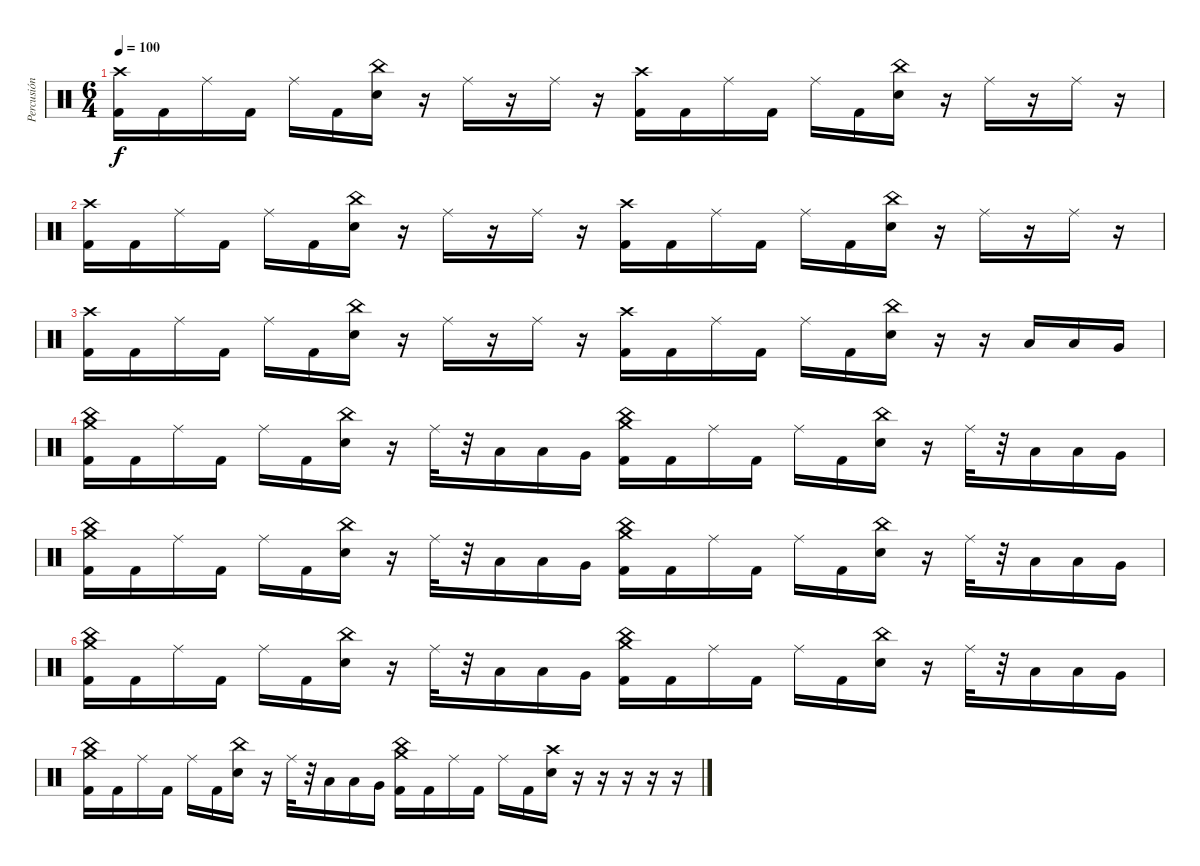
\track ("Percusión" "Percusión") {instrument percussion}
\staff {score}
\articulation defaults
\ts (6 4)
\tempo 100
\clef neutral
\ks c
("Crash high (hit)" "Kick (hit) 2").16{dy f} "Kick (hit) 2".16 "Ride (middle)".16 "Kick (hit) 2".16 "Ride (middle)".16 "Kick (hit) 2".16 ("China (hit)" "Snare (hit) 2").16 r.16 "Ride (middle)".16 r.16 "Ride (middle)".16 r.16 ("Crash high (hit)" "Kick (hit) 2").16 "Kick (hit) 2".16 "Ride (middle)".16 "Kick (hit) 2".16 "Ride (middle)".16 "Kick (hit) 2".16 ("China (hit)" "Snare (hit) 2").16 r.16 "Ride (middle)".16 r.16 "Ride (middle)".16 r.16 |
("Crash high (hit)" "Kick (hit) 2").16 "Kick (hit) 2".16 "Ride (middle)".16 "Kick (hit) 2".16 "Ride (middle)".16 "Kick (hit) 2".16 ("China (hit)" "Snare (hit) 2").16 r.16 "Ride (middle)".16 r.16 "Ride (middle)".16 r.16 ("Crash high (hit)" "Kick (hit) 2").16 "Kick (hit) 2".16 "Ride (middle)".16 "Kick (hit) 2".16 "Ride (middle)".16 "Kick (hit) 2".16 ("China (hit)" "Snare (hit) 2").16 r.16 "Ride (middle)".16 r.16 "Ride (middle)".16 r.16 |
("Crash high (hit)" "Kick (hit) 2").16 "Kick (hit) 2".16 "Ride (middle)".16 "Kick (hit) 2".16 "Ride (middle)".16 "Kick (hit) 2".16 ("China (hit)" "Snare (hit) 2").16 r.16 "Ride (middle)".16 r.16 "Ride (middle)".16 r.16 ("Crash high (hit)" "Kick (hit) 2").16 "Kick (hit) 2".16 "Ride (middle)".16 "Kick (hit) 2".16 "Ride (middle)".16 "Kick (hit) 2".16 ("China (hit)" "Snare (hit) 2").16 r.16 r.16 "Low Tom (hit)".16 "Low Floor Tom (hit)".16 "Very Low Tom (hit)".16 |
("China (hit)" "Crash medium (hit)" "Kick (hit) 2").16 "Kick (hit) 2".16 "Ride (middle)".16 "Kick (hit) 2".16 "Ride (middle)".16 "Kick (hit) 2".16 ("China (hit)" "Snare (hit) 2").16 r.16 "Ride (middle)".32 r.32 "Low Tom (hit)".16 "Low Floor Tom (hit)".16 "Very Low Tom (hit)".16 ("China (hit)" "Crash medium (hit)" "Kick (hit) 2").16 "Kick (hit) 2".16 "Ride (middle)".16 "Kick (hit) 2".16 "Ride (middle)".16 "Kick (hit) 2".16 ("China (hit)" "Snare (hit) 2").16 r.16 "Ride (middle)".32 r.32 "Low Tom (hit)".16 "Low Floor Tom (hit)".16 "Very Low Tom (hit)".16 |
("China (hit)" "Crash medium (hit)" "Kick (hit) 2").16 "Kick (hit) 2".16 "Ride (middle)".16 "Kick (hit) 2".16 "Ride (middle)".16 "Kick (hit) 2".16 ("China (hit)" "Snare (hit) 2").16 r.16 "Ride (middle)".32 r.32 "Low Tom (hit)".16 "Low Floor Tom (hit)".16 "Very Low Tom (hit)".16 ("China (hit)" "Crash medium (hit)" "Kick (hit) 2").16 "Kick (hit) 2".16 "Ride (middle)".16 "Kick (hit) 2".16 "Ride (middle)".16 "Kick (hit) 2".16 ("China (hit)" "Snare (hit) 2").16 r.16 "Ride (middle)".32 r.32 "Low Tom (hit)".16 "Low Floor Tom (hit)".16 "Very Low Tom (hit)".16 |
("China (hit)" "Crash medium (hit)" "Kick (hit) 2").16 "Kick (hit) 2".16 "Ride (middle)".16 "Kick (hit) 2".16 "Ride (middle)".16 "Kick (hit) 2".16 ("China (hit)" "Snare (hit) 2").16 r.16 "Ride (middle)".32 r.32 "Low Tom (hit)".16 "Low Floor Tom (hit)".16 "Very Low Tom (hit)".16 ("China (hit)" "Crash medium (hit)" "Kick (hit) 2").16 "Kick (hit) 2".16 "Ride (middle)".16 "Kick (hit) 2".16 "Ride (middle)".16 "Kick (hit) 2".16 ("China (hit)" "Snare (hit) 2").16 r.16 "Ride (middle)".32 r.32 "Low Tom (hit)".16 "Low Floor Tom (hit)".16 "Very Low Tom (hit)".16 |
("China (hit)" "Crash medium (hit)" "Kick (hit) 2").16 "Kick (hit) 2".16 "Ride (middle)".16 "Kick (hit) 2".16 "Ride (middle)".16 "Kick (hit) 2".16 ("China (hit)" "Snare (hit) 2").16 r.16 "Ride (middle)".32 r.32 "Low Tom (hit)".16 "Low Floor Tom (hit)".16 "Very Low Tom (hit)".16 ("China (hit)" "Crash medium (hit)" "Kick (hit) 2").16 "Kick (hit) 2".16 "Ride (middle)".16 "Kick (hit) 2".16 "Ride (middle)".16 "Kick (hit) 2".16 ("Crash high (hit)" "Snare (hit) 2").16 r.16 r.16 r.16 r.16 r.16
